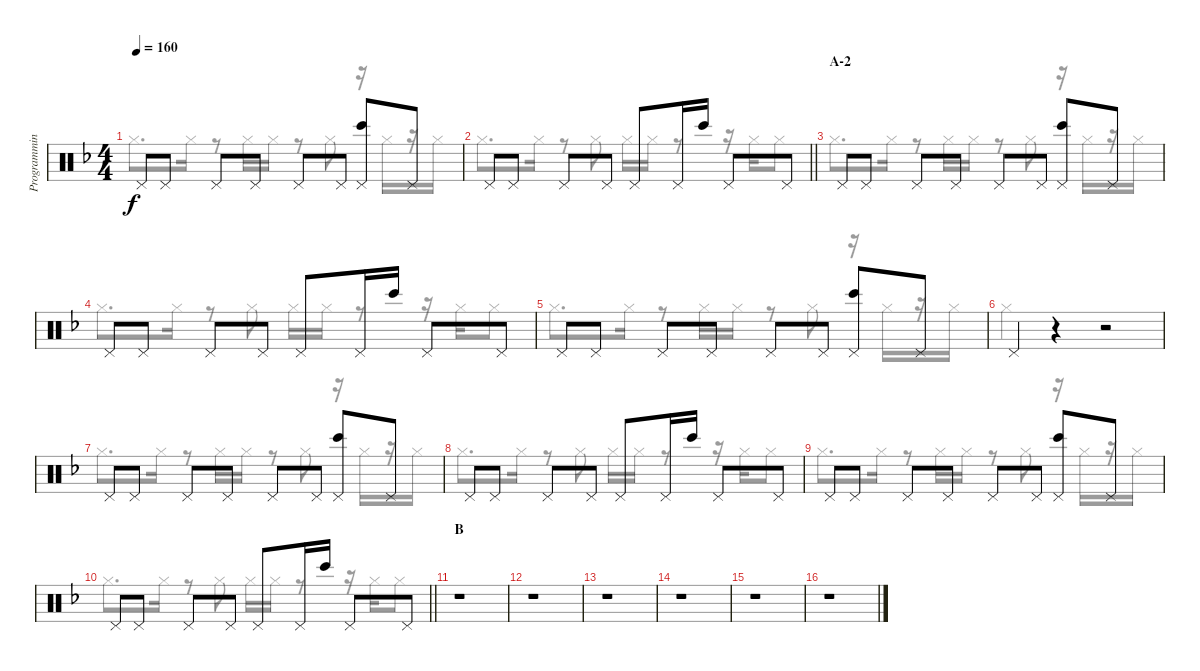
\track ("Programming" "Programmin") {instrument percussion}
\staff {score}
\articulation defaults
\voice
\ts (4 4)
\tempo 160
\clef neutral
\ks f "Pedal Hi-Hat (hit)".8{dy f} "Pedal Hi-Hat (hit)".8 "Pedal Hi-Hat (hit)".8 "Pedal Hi-Hat (hit)".8 "Pedal Hi-Hat (hit)".8 "Pedal Hi-Hat (hit)".8
("Pedal Hi-Hat (hit)" "Bongo High (hit)").8 "Pedal Hi-Hat (hit)".8 |
\barLineRight lightlight "Pedal Hi-Hat (hit)".8 "Pedal Hi-Hat (hit)".8 "Pedal Hi-Hat (hit)".8 "Pedal Hi-Hat (hit)".8 "Pedal Hi-Hat (hit)".8 "Pedal Hi-Hat (hit)".16 "Bongo High (hit)".16 "Pedal Hi-Hat (hit)".8 "Pedal Hi-Hat (hit)".8
|
\section ("" "A-2")
"Pedal Hi-Hat (hit)".8 "Pedal Hi-Hat (hit)".8 "Pedal Hi-Hat (hit)".8 "Pedal Hi-Hat (hit)".8 "Pedal Hi-Hat (hit)".8 "Pedal Hi-Hat (hit)".8 ("Pedal Hi-Hat (hit)" "Bongo High (hit)").8 "Pedal Hi-Hat (hit)".8 |
"Pedal Hi-Hat (hit)".8 "Pedal Hi-Hat (hit)".8 "Pedal Hi-Hat (hit)".8 "Pedal Hi-Hat (hit)".8 "Pedal Hi-Hat (hit)".8 "Pedal Hi-Hat (hit)".16 "Bongo High (hit)".16 "Pedal Hi-Hat (hit)".8 "Pedal Hi-Hat (hit)".8 |
"Pedal Hi-Hat (hit)".8 "Pedal Hi-Hat (hit)".8 "Pedal Hi-Hat (hit)".8 "Pedal Hi-Hat (hit)".8 "Pedal Hi-Hat (hit)".8 "Pedal Hi-Hat (hit)".8 ("Pedal Hi-Hat (hit)" "Bongo High (hit)").8 "Pedal Hi-Hat (hit)".8 |
"Pedal Hi-Hat (hit)".4 r.4 r.2 |
"Pedal Hi-Hat (hit)".8 "Pedal Hi-Hat (hit)".8 "Pedal Hi-Hat (hit)".8 "Pedal Hi-Hat (hit)".8 "Pedal Hi-Hat (hit)".8 "Pedal Hi-Hat (hit)".8 ("Pedal Hi-Hat (hit)" "Bongo High (hit)").8 "Pedal Hi-Hat (hit)".8 |
"Pedal Hi-Hat (hit)".8 "Pedal Hi-Hat (hit)".8 "Pedal Hi-Hat (hit)".8 "Pedal Hi-Hat (hit)".8 "Pedal Hi-Hat (hit)".8 "Pedal Hi-Hat (hit)".16 "Bongo High (hit)".16 "Pedal Hi-Hat (hit)".8 "Pedal Hi-Hat (hit)".8 |
"Pedal Hi-Hat (hit)".8 "Pedal Hi-Hat (hit)".8 "Pedal Hi-Hat (hit)".8 "Pedal Hi-Hat (hit)".8 "Pedal Hi-Hat (hit)".8 "Pedal Hi-Hat (hit)".8 ("Pedal Hi-Hat (hit)" "Bongo High (hit)").8 "Pedal Hi-Hat (hit)".8 |
\barLineRight lightlight "Pedal Hi-Hat (hit)".8 "Pedal Hi-Hat (hit)".8 "Pedal Hi-Hat (hit)".8 "Pedal Hi-Hat (hit)".8 "Pedal Hi-Hat (hit)".8 "Pedal Hi-Hat (hit)".16 "Bongo High (hit)".16 "Pedal Hi-Hat (hit)".8 "Pedal Hi-Hat (hit)".8
|
\section ("" "B")
r.1 |
r.1 |
r.1 |
r.1 |
r.1 |
r.1
\voice
\clef neutral
\ottava regular
\simile none
\ks f "Hi-Hat (closed)".8{d dy f} "Hi-Hat (closed)".16
r.8 "Hi-Hat (closed)".16 "Hi-Hat (closed)".16 r.8 "Hi-Hat (closed)".8 r.16 "Hi-Hat (closed)".16 r.16 "Hi-Hat (closed)".16 |
\barLineRight lightlight "Hi-Hat (closed)".8{d} "Hi-Hat (closed)".16
r.8 "Hi-Hat (closed)".8 "Hi-Hat (closed)".16 "Hi-Hat (closed)".16 r.8 r.16 "Hi-Hat (closed)".16 "Hi-Hat (closed)".8 |
"Hi-Hat (closed)".8{d} "Hi-Hat (closed)".16 r.8 "Hi-Hat (closed)".16 "Hi-Hat (closed)".16 r.8 "Hi-Hat (closed)".8 r.16 "Hi-Hat (closed)".16 r.16 "Hi-Hat (closed)".16 |
"Hi-Hat (closed)".8{d} "Hi-Hat (closed)".16 r.8 "Hi-Hat (closed)".8 "Hi-Hat (closed)".16 "Hi-Hat (closed)".16 r.8 r.16 "Hi-Hat (closed)".16 "Hi-Hat (closed)".8 |
"Hi-Hat (closed)".8{d} "Hi-Hat (closed)".16 r.8 "Hi-Hat (closed)".16 "Hi-Hat (closed)".16 r.8 "Hi-Hat (closed)".8 r.16 "Hi-Hat (closed)".16 r.16 "Hi-Hat (closed)".16 |
"Hi-Hat (closed)".4 r.4 r.2 |
"Hi-Hat (closed)".8{d} "Hi-Hat (closed)".16 r.8 "Hi-Hat (closed)".16 "Hi-Hat (closed)".16 r.8 "Hi-Hat (closed)".8 r.16 "Hi-Hat (closed)".16 r.16 "Hi-Hat (closed)".16 |
"Hi-Hat (closed)".8{d} "Hi-Hat (closed)".16 r.8 "Hi-Hat (closed)".8 "Hi-Hat (closed)".16 "Hi-Hat (closed)".16 r.8 r.16 "Hi-Hat (closed)".16 "Hi-Hat (closed)".8 |
"Hi-Hat (closed)".8{d} "Hi-Hat (closed)".16 r.8 "Hi-Hat (closed)".16 "Hi-Hat (closed)".16 r.8 "Hi-Hat (closed)".8 r.16 "Hi-Hat (closed)".16 r.16 "Hi-Hat (closed)".16 |
\barLineRight lightlight "Hi-Hat (closed)".8{d} "Hi-Hat (closed)".16
r.8 "Hi-Hat (closed)".8 "Hi-Hat (closed)".16 "Hi-Hat (closed)".16 r.8 r.16 "Hi-Hat (closed)".16 "Hi-Hat (closed)".8 |
r.1 |
r.1 |
r.1 |
r.1 |
r.1 |
r.1
